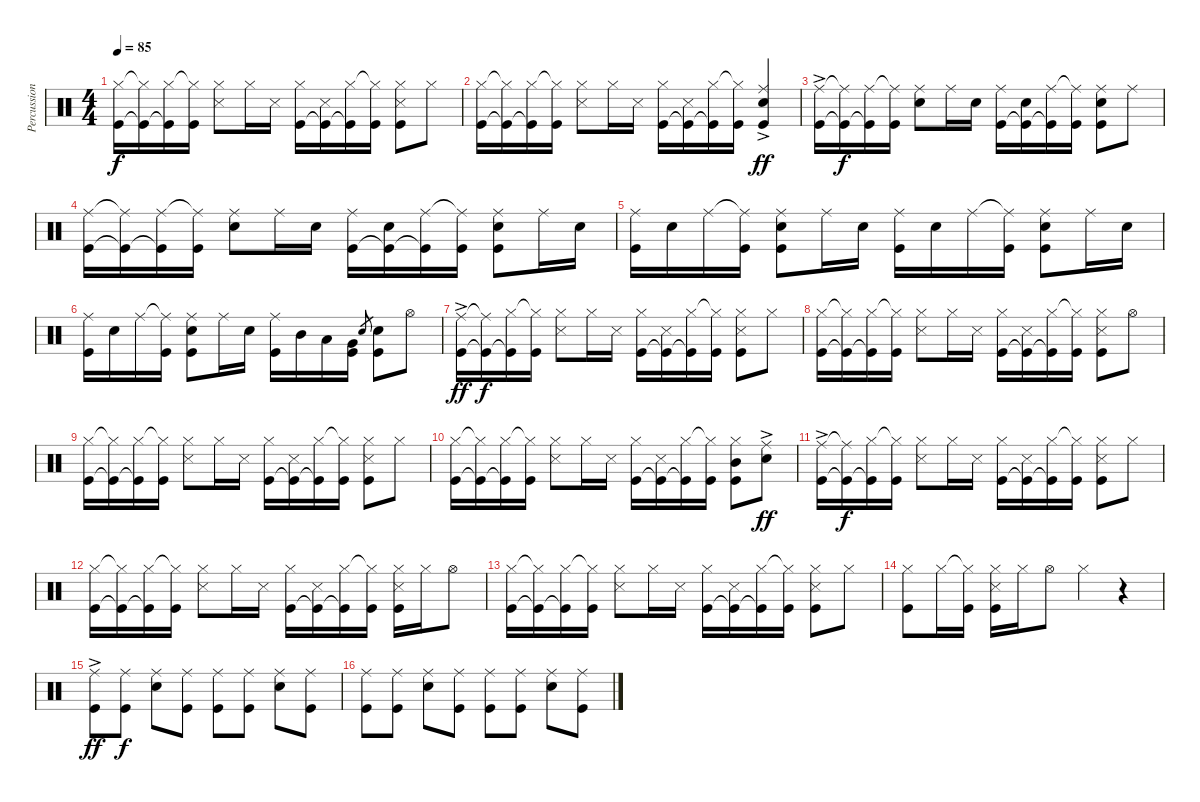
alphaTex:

\track ("Percussion" "Percussion") {instrument percussion}
\staff {score}
\articulation defaults
\ts (4 4)
\tempo 85
\clef neutral
\ks c
("Hi-Hat (closed)" "Kick (hit)").16{dy f} ("Hi-Hat (closed)"{t} "Kick (hit)"{t}).16 ("Hi-Hat (closed)" "Kick (hit)"{t}).16 ("Hi-Hat (closed)"{t} "Kick (hit)").16 ("Hi-Hat (closed)" "Snare (side stick) 3").8 "Hi-Hat (closed)".16 "Snare (side stick) 3".16 ("Hi-Hat (closed)" "Kick (hit)").16 ("Snare (side stick) 3" "Kick (hit)"{t}).16 ("Hi-Hat (closed)" "Kick (hit)"{t}).16 ("Hi-Hat (closed)"{t} "Kick (hit)").16 ("Hi-Hat (closed)" "Snare (side stick) 3" "Kick (hit)").8 "Hi-Hat (closed)".8 |
("Hi-Hat (closed)" "Kick (hit)").16 ("Hi-Hat (closed)"{t} "Kick (hit)"{t}).16 ("Hi-Hat (closed)" "Kick (hit)"{t}).16 ("Hi-Hat (closed)"{t} "Kick (hit)").16 ("Hi-Hat (closed)" "Snare (side stick) 3").8 "Hi-Hat (closed)".16 "Snare (side stick) 3".16 ("Hi-Hat (closed)" "Kick (hit)").16 ("Snare (side stick) 3" "Kick (hit)"{t}).16 ("Hi-Hat (closed)" "Kick (hit)"{t}).16 ("Hi-Hat (closed)"{t} "Kick (hit)").16 ("Ride (middle)"{ac} "Snare (hit) 2" "Kick (hit)").4{dy ff} |
("Ride (middle)"{ac} "Kick (hit)").16 ("Ride (middle)"{t} "Kick (hit)"{t}).16{dy f} ("Ride (middle)" "Kick (hit)"{t}).16 ("Ride (middle)"{t} "Kick (hit)").16 ("Ride (middle)" "Snare (hit) 2").8 "Ride (middle)".16 "Snare (hit) 2".16 ("Ride (middle)" "Kick (hit)").16 ("Snare (hit) 2" "Kick (hit)"{t}).16 ("Ride (middle)" "Kick (hit)"{t}).16 ("Ride (middle)"{t} "Kick (hit)").16 ("Ride (middle)" "Snare (hit) 2" "Kick (hit)").8 "Ride (middle)".8 |
("Ride (middle)" "Kick (hit)").16 ("Ride (middle)"{t} "Kick (hit)"{t}).16 ("Ride (middle)" "Kick (hit)"{t}).16 ("Ride (middle)"{t} "Kick (hit)").16 ("Ride (middle)" "Snare (hit) 2").8 "Ride (middle)".16 "Snare (hit) 2".16 ("Ride (middle)" "Kick (hit)").16 ("Snare (hit) 2" "Kick (hit)"{t}).16 ("Ride (middle)" "Kick (hit)"{t}).16 ("Ride (middle)"{t} "Kick (hit)").16 ("Ride (middle)" "Snare (hit) 2" "Kick (hit)").8 "Ride (middle)".16 "Snare (hit) 2".16 |
("Ride (middle)" "Kick (hit)").16 "Snare (hit) 2".16 "Ride (middle)".16 ("Ride (middle)"{t} "Kick (hit)").16 ("Ride (middle)" "Snare (hit) 2" "Kick (hit)").8 "Ride (middle)".16 "Snare (hit) 2".16 ("Ride (middle)" "Kick (hit)").16 "Snare (hit) 2".16 "Ride (middle)".16 ("Ride (middle)"{t} "Kick (hit)").16 ("Ride (middle)" "Snare (hit) 2" "Kick (hit)").8 "Ride (middle)".16 "Snare (hit) 2".16 |
("Ride (middle)" "Kick (hit)").16 "Snare (hit) 2".16 "Ride (middle)".16 ("Ride (middle)"{t} "Kick (hit)").16 ("Ride (middle)" "Snare (hit) 2" "Kick (hit)").8 "Ride (middle)".16 "Snare (hit) 2".16 ("Ride (middle)" "Kick (hit)").16 "Mid Tom (hit)".16 "Low Tom (hit)".16 ("Very Low Tom (hit)" "Kick (hit)").16 "Snare (hit) 2".8{gr} ("Snare (hit) 2" "Kick (hit)").8 "Hi-Hat (open)".8 |
("Ride (middle)"{ac} "Kick (hit)").16{dy ff} ("Ride (middle)"{t} "Kick (hit)"{t}).16{dy f} ("Hi-Hat (closed)" "Kick (hit)"{t}).16 ("Hi-Hat (closed)"{t} "Kick (hit)").16 ("Hi-Hat (closed)" "Snare (side stick) 3").8 "Hi-Hat (closed)".16 "Snare (side stick) 3".16 ("Hi-Hat (closed)" "Kick (hit)").16 ("Snare (side stick) 3" "Kick (hit)"{t}).16 ("Hi-Hat (closed)" "Kick (hit)"{t}).16 ("Hi-Hat (closed)"{t} "Kick (hit)").16 ("Hi-Hat (closed)" "Snare (side stick) 3" "Kick (hit)").8 "Hi-Hat (closed)".8 |
("Hi-Hat (closed)" "Kick (hit)").16 ("Hi-Hat (closed)"{t} "Kick (hit)"{t}).16 ("Hi-Hat (closed)" "Kick (hit)"{t}).16 ("Hi-Hat (closed)"{t} "Kick (hit)").16 ("Hi-Hat (closed)" "Snare (side stick) 3").8 "Hi-Hat (closed)".16 "Snare (side stick) 3".16 ("Hi-Hat (closed)" "Kick (hit)").16 ("Snare (side stick) 3" "Kick (hit)"{t}).16 ("Hi-Hat (closed)" "Kick (hit)"{t}).16 ("Hi-Hat (closed)"{t} "Kick (hit)").16 ("Hi-Hat (closed)" "Snare (side stick) 3" "Kick (hit)").8 "Hi-Hat (open)".8 |
("Hi-Hat (closed)" "Kick (hit)").16 ("Hi-Hat (closed)"{t} "Kick (hit)"{t}).16 ("Hi-Hat (closed)" "Kick (hit)"{t}).16 ("Hi-Hat (closed)"{t} "Kick (hit)").16 ("Hi-Hat (closed)" "Snare (side stick) 3").8 "Hi-Hat (closed)".16 "Snare (side stick) 3".16 ("Hi-Hat (closed)" "Kick (hit)").16 ("Snare (side stick) 3" "Kick (hit)"{t}).16 ("Hi-Hat (closed)" "Kick (hit)"{t}).16 ("Hi-Hat (closed)"{t} "Kick (hit)").16 ("Hi-Hat (closed)" "Snare (side stick) 3" "Kick (hit)").8 "Hi-Hat (closed)".8 |
("Hi-Hat (closed)" "Kick (hit)").16 ("Hi-Hat (closed)"{t} "Kick (hit)"{t}).16 ("Hi-Hat (closed)" "Kick (hit)"{t}).16 ("Hi-Hat (closed)"{t} "Kick (hit)").16 ("Hi-Hat (closed)" "Snare (side stick) 3").8 "Hi-Hat (closed)".16 "Snare (side stick) 3".16 ("Hi-Hat (closed)" "Kick (hit)").16 ("Snare (side stick) 3" "Kick (hit)"{t}).16 ("Hi-Hat (closed)" "Kick (hit)"{t}).16 ("Hi-Hat (closed)"{t} "Kick (hit)").16 ("Hi-Hat (closed)" "Mid Tom (hit)" "Kick (hit)").8 ("Ride (middle)"{ac} "Snare (hit) 2").8{dy ff} |
("Ride (middle)"{ac} "Kick (hit)").16 ("Ride (middle)"{t} "Kick (hit)"{t}).16{dy f} ("Hi-Hat (closed)" "Kick (hit)"{t}).16 ("Hi-Hat (closed)"{t} "Kick (hit)").16 ("Hi-Hat (closed)" "Snare (side stick) 3").8 "Hi-Hat (closed)".16 "Snare (side stick) 3".16 ("Hi-Hat (closed)" "Kick (hit)").16 ("Snare (side stick) 3" "Kick (hit)"{t}).16 ("Hi-Hat (closed)" "Kick (hit)"{t}).16 ("Hi-Hat (closed)"{t} "Kick (hit)").16 ("Hi-Hat (closed)" "Snare (side stick) 3" "Kick (hit)").8 "Hi-Hat (closed)".8 |
("Hi-Hat (closed)" "Kick (hit)").16 ("Hi-Hat (closed)"{t} "Kick (hit)"{t}).16 ("Hi-Hat (closed)" "Kick (hit)"{t}).16 ("Hi-Hat (closed)"{t} "Kick (hit)").16 ("Hi-Hat (closed)" "Snare (side stick) 3").8 "Hi-Hat (closed)".16 "Snare (side stick) 3".16 ("Hi-Hat (closed)" "Kick (hit)").16 ("Snare (side stick) 3" "Kick (hit)"{t}).16 ("Hi-Hat (closed)" "Kick (hit)"{t}).16 ("Hi-Hat (closed)"{t} "Kick (hit)").16 ("Hi-Hat (closed)" "Snare (side stick) 3" "Kick (hit)").16 "Hi-Hat (closed)".16 "Hi-Hat (open)".8 |
("Hi-Hat (closed)" "Kick (hit)").16 ("Hi-Hat (closed)"{t} "Kick (hit)"{t}).16 ("Hi-Hat (closed)" "Kick (hit)"{t}).16 ("Hi-Hat (closed)"{t} "Kick (hit)").16 ("Hi-Hat (closed)" "Snare (side stick) 3").8 "Hi-Hat (closed)".16 "Snare (side stick) 3".16 ("Hi-Hat (closed)" "Kick (hit)").16 ("Snare (side stick) 3" "Kick (hit)"{t}).16 ("Hi-Hat (closed)" "Kick (hit)"{t}).16 ("Hi-Hat (closed)"{t} "Kick (hit)").16 ("Hi-Hat (closed)" "Snare (side stick) 3" "Kick (hit)").8 "Hi-Hat (closed)".8 |
("Hi-Hat (closed)" "Kick (hit)").8 "Hi-Hat (closed)".16 ("Hi-Hat (closed)"{t} "Kick (hit)").16 ("Hi-Hat (closed)" "Snare (side stick) 3" "Kick (hit)").16 "Hi-Hat (closed)".16 "Hi-Hat (open)".8 "Hi-Hat (closed)".4 r.4 |
("Ride (middle)"{ac} "Kick (hit)").8{dy ff} ("Ride (middle)" "Kick (hit)").8{dy f} ("Ride (middle)" "Snare (hit) 2").8 ("Ride (middle)" "Kick (hit)").8 ("Ride (middle)" "Kick (hit)").8 ("Ride (middle)" "Kick (hit)").8 ("Ride (middle)" "Snare (hit) 2").8 ("Ride (middle)" "Kick (hit)").8 |
("Ride (middle)" "Kick (hit)").8 ("Ride (middle)" "Kick (hit)").8 ("Ride (middle)" "Snare (hit) 2").8 ("Ride (middle)" "Kick (hit)").8 ("Ride (middle)" "Kick (hit)").8 ("Ride (middle)" "Kick (hit)").8 ("Ride (middle)" "Snare (hit) 2").8 ("Ride (middle)" "Kick (hit)").8
